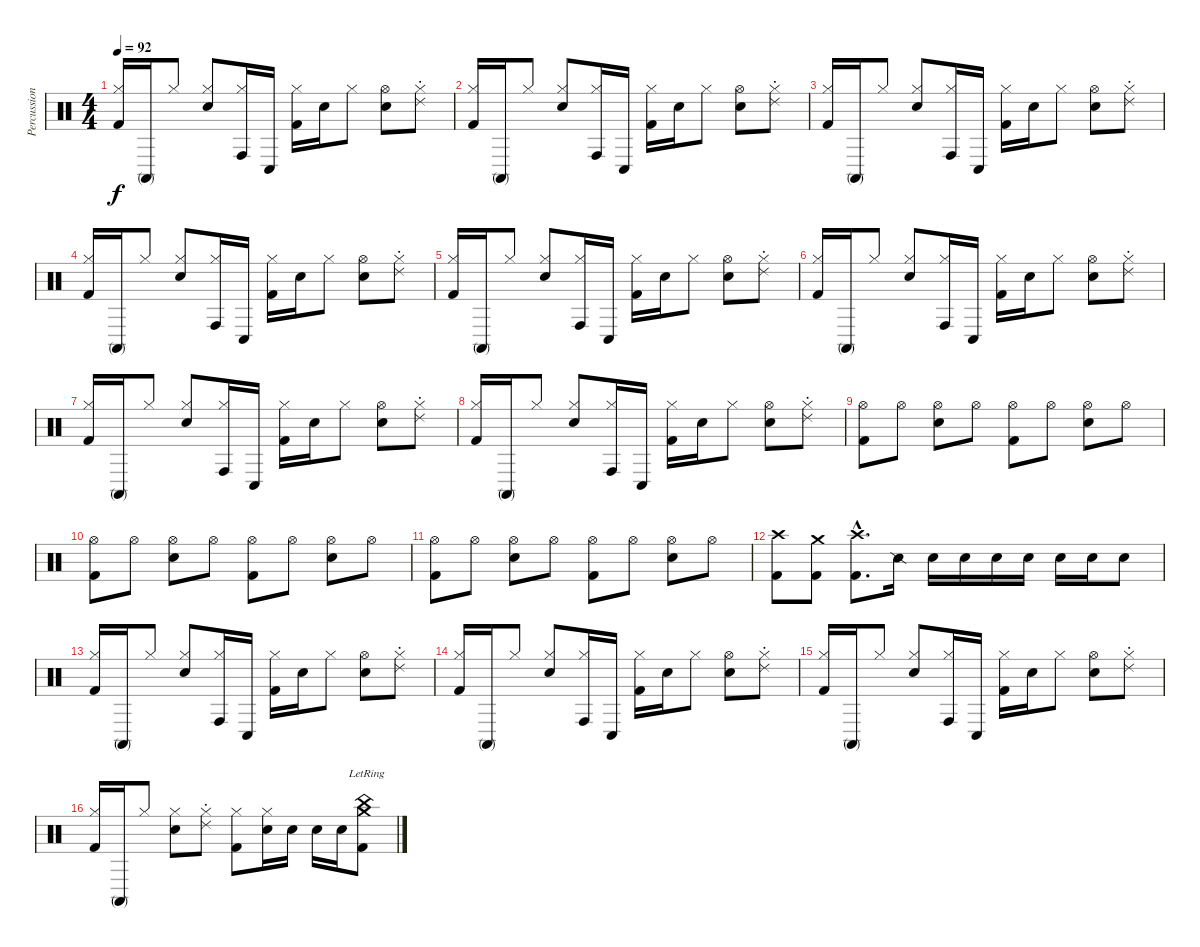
\track ("Percussion" "Percussion") {instrument percussion}
\staff {score}
\articulation defaults
\ts (4 4)
\tempo 92
\clef neutral
\ks c
("Hi-Hat (closed)" "Kick (hit) 2").16{dy f} "Conga high (mute)".16 "Hi-Hat (closed)".8 ("Hi-Hat (closed)" "Metronome (bell)").8 ("Hi-Hat (closed)" "Conga high (hit)").16 "Conga low (hit)".16 ("Hi-Hat (closed)" "Kick (hit) 2").16 "Metronome (bell)".16 "Hi-Hat (closed)".8 ("Hi-Hat (open)" "Metronome (bell)").8 ("Hi-Hat (closed)" "Ride (choke) 2").8 |
("Hi-Hat (closed)" "Kick (hit) 2").16 "Conga high (mute)".16 "Hi-Hat (closed)".8 ("Hi-Hat (closed)" "Metronome (bell)").8 ("Hi-Hat (closed)" "Conga high (hit)").16 "Conga low (hit)".16 ("Hi-Hat (closed)" "Kick (hit) 2").16 "Metronome (bell)".16 "Hi-Hat (closed)".8 ("Hi-Hat (open)" "Metronome (bell)").8 ("Hi-Hat (closed)" "Ride (choke) 2").8 |
("Hi-Hat (closed)" "Kick (hit) 2").16 "Conga high (mute)".16 "Hi-Hat (closed)".8 ("Hi-Hat (closed)" "Metronome (bell)").8 ("Hi-Hat (closed)" "Conga high (hit)").16 "Conga low (hit)".16 ("Hi-Hat (closed)" "Kick (hit) 2").16 "Metronome (bell)".16 "Hi-Hat (closed)".8 ("Hi-Hat (open)" "Metronome (bell)").8 ("Hi-Hat (closed)" "Ride (choke) 2").8 |
("Hi-Hat (closed)" "Kick (hit) 2").16 "Conga high (mute)".16 "Hi-Hat (closed)".8 ("Hi-Hat (closed)" "Metronome (bell)").8 ("Hi-Hat (closed)" "Conga high (hit)").16 "Conga low (hit)".16 ("Hi-Hat (closed)" "Kick (hit) 2").16 "Metronome (bell)".16 "Hi-Hat (closed)".8 ("Hi-Hat (open)" "Metronome (bell)").8 ("Hi-Hat (closed)" "Ride (choke) 2").8 |
("Hi-Hat (closed)" "Kick (hit) 2").16 "Conga high (mute)".16 "Hi-Hat (closed)".8 ("Hi-Hat (closed)" "Metronome (bell)").8 ("Hi-Hat (closed)" "Conga high (hit)").16 "Conga low (hit)".16 ("Hi-Hat (closed)" "Kick (hit) 2").16 "Metronome (bell)".16 "Hi-Hat (closed)".8 ("Hi-Hat (open)" "Metronome (bell)").8 ("Hi-Hat (closed)" "Ride (choke) 2").8 |
("Hi-Hat (closed)" "Kick (hit) 2").16 "Conga high (mute)".16 "Hi-Hat (closed)".8 ("Hi-Hat (closed)" "Metronome (bell)").8 ("Hi-Hat (closed)" "Conga high (hit)").16 "Conga low (hit)".16 ("Hi-Hat (closed)" "Kick (hit) 2").16 "Metronome (bell)".16 "Hi-Hat (closed)".8 ("Hi-Hat (open)" "Metronome (bell)").8 ("Hi-Hat (closed)" "Ride (choke) 2").8 |
("Hi-Hat (closed)" "Kick (hit) 2").16 "Conga high (mute)".16 "Hi-Hat (closed)".8 ("Hi-Hat (closed)" "Metronome (bell)").8 ("Hi-Hat (closed)" "Conga high (hit)").16 "Conga low (hit)".16 ("Hi-Hat (closed)" "Kick (hit) 2").16 "Metronome (bell)".16 "Hi-Hat (closed)".8 ("Hi-Hat (open)" "Metronome (bell)").8 ("Hi-Hat (closed)" "Ride (choke) 2").8 |
("Hi-Hat (closed)" "Kick (hit) 2").16 "Conga high (mute)".16 "Hi-Hat (closed)".8 ("Hi-Hat (closed)" "Metronome (bell)").8 ("Hi-Hat (closed)" "Conga high (hit)").16 "Conga low (hit)".16 ("Hi-Hat (closed)" "Kick (hit) 2").16 "Metronome (bell)".16 "Hi-Hat (closed)".8 ("Hi-Hat (open)" "Metronome (bell)").8 ("Hi-Hat (closed)" "Ride (choke) 2").8 |
("Hi-Hat (open)" "Kick (hit) 2").8 "Hi-Hat (open)".8 ("Hi-Hat (open)" "Metronome (bell)").8 "Hi-Hat (open)".8 ("Hi-Hat (open)" "Kick (hit) 2").8 "Hi-Hat (open)".8 ("Hi-Hat (open)" "Metronome (bell)").8 "Hi-Hat (open)".8 |
("Hi-Hat (open)" "Kick (hit) 2").8 "Hi-Hat (open)".8 ("Hi-Hat (open)" "Metronome (bell)").8 "Hi-Hat (open)".8 ("Hi-Hat (open)" "Kick (hit) 2").8 "Hi-Hat (open)".8 ("Hi-Hat (open)" "Metronome (bell)").8 "Hi-Hat (open)".8 |
("Hi-Hat (open)" "Kick (hit) 2").8 "Hi-Hat (open)".8 ("Hi-Hat (open)" "Metronome (bell)").8 "Hi-Hat (open)".8 ("Hi-Hat (open)" "Kick (hit) 2").8 "Hi-Hat (open)".8 ("Hi-Hat (open)" "Metronome (bell)").8 "Hi-Hat (open)".8 |
("Crash high (hit)" "Kick (hit) 2").8 ("Crash medium (hit)" "Kick (hit) 2").8 ("Crash high (hit)"{hac} "Kick (hit) 2"{hac}).8{d} "Snare (side stick) 2".16 "Metronome (bell)".16 "Metronome (bell)".16 "Metronome (bell)".16 "Metronome (bell)".16 "Metronome (bell)".16 "Metronome (bell)".16 "Metronome (bell)".8 |
("Hi-Hat (closed)" "Kick (hit) 2").16 "Conga high (mute)".16 "Hi-Hat (closed)".8 ("Hi-Hat (closed)" "Metronome (bell)").8 ("Hi-Hat (closed)" "Conga high (hit)").16 "Conga low (hit)".16 ("Hi-Hat (closed)" "Kick (hit) 2").16 "Metronome (bell)".16 "Hi-Hat (closed)".8 ("Hi-Hat (open)" "Metronome (bell)").8 ("Hi-Hat (closed)" "Ride (choke) 2").8 |
("Hi-Hat (closed)" "Kick (hit) 2").16 "Conga high (mute)".16 "Hi-Hat (closed)".8 ("Hi-Hat (closed)" "Metronome (bell)").8 ("Hi-Hat (closed)" "Conga high (hit)").16 "Conga low (hit)".16 ("Hi-Hat (closed)" "Kick (hit) 2").16 "Metronome (bell)".16 "Hi-Hat (closed)".8 ("Hi-Hat (open)" "Metronome (bell)").8 ("Hi-Hat (closed)" "Ride (choke) 2").8 |
("Hi-Hat (closed)" "Kick (hit) 2").16 "Conga high (mute)".16 "Hi-Hat (closed)".8 ("Hi-Hat (closed)" "Metronome (bell)").8 ("Hi-Hat (closed)" "Conga high (hit)").16 "Conga low (hit)".16 ("Hi-Hat (closed)" "Kick (hit) 2").16 "Metronome (bell)".16 "Hi-Hat (closed)".8 ("Hi-Hat (open)" "Metronome (bell)").8 ("Hi-Hat (closed)" "Ride (choke) 2").8 |
("Hi-Hat (closed)" "Kick (hit) 2").16 "Conga high (mute)".16 "Hi-Hat (closed)".8 ("Hi-Hat (closed)" "Metronome (bell)").8 ("Hi-Hat (closed)" "Ride (choke) 2").8 ("Hi-Hat (closed)" "Kick (hit) 2").8 ("Hi-Hat (closed)" "Metronome (bell)").16 "Metronome (bell)".16 "Metronome (bell)".16 "Metronome (bell)".16 ("Crash medium (hit)"{lr} "China (hit)" "Kick (hit) 2"{lr}).8
